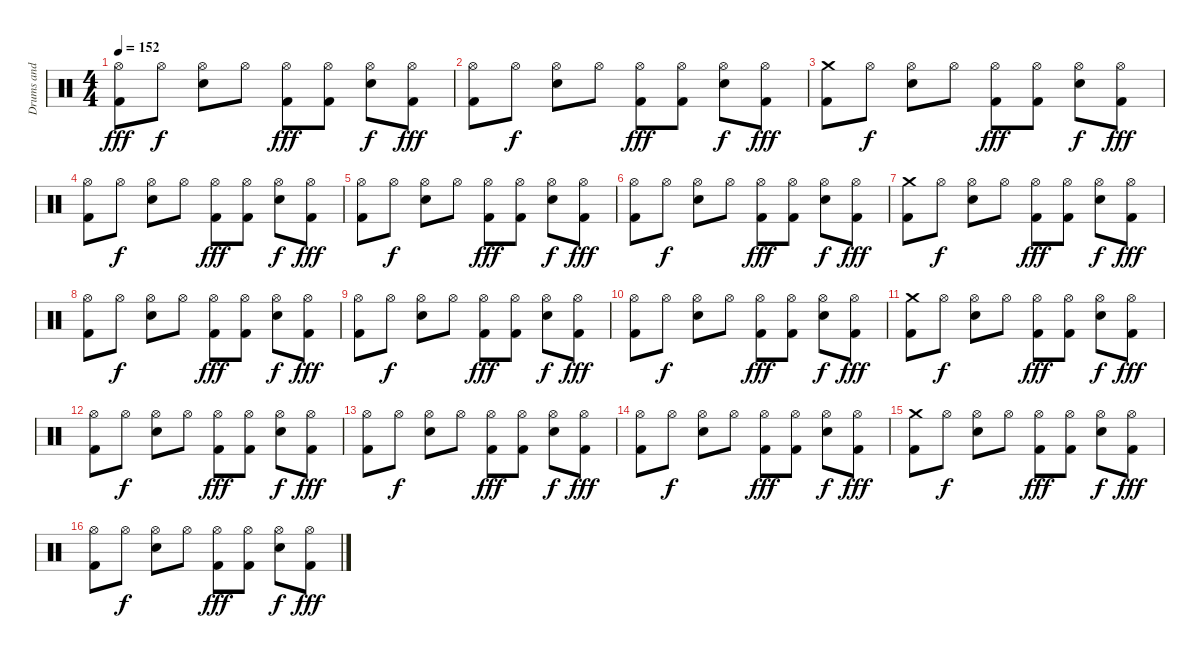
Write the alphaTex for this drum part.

\track ("Drums and Percussion" "Drums and ") {instrument percussion}
\staff {score}
\articulation defaults
\ts (4 4)
\tempo 152
\clef neutral
\ks c
("Hi-Hat (open)" "Kick (hit) 2").8{dy fff} "Hi-Hat (open)".8{dy f} ("Hi-Hat (open)" "Snare (hit) 2").8 "Hi-Hat (open)".8 ("Hi-Hat (open)" "Kick (hit) 2").8{dy fff} ("Hi-Hat (open)" "Kick (hit) 2").8 ("Hi-Hat (open)" "Snare (hit) 2").8{dy f} ("Hi-Hat (open)" "Kick (hit) 2").8{dy fff} |
("Hi-Hat (open)" "Kick (hit) 2").8 "Hi-Hat (open)".8{dy f} ("Hi-Hat (open)" "Snare (hit) 2").8 "Hi-Hat (open)".8 ("Hi-Hat (open)" "Kick (hit) 2").8{dy fff} ("Hi-Hat (open)" "Kick (hit) 2").8 ("Hi-Hat (open)" "Snare (hit) 2").8{dy f} ("Hi-Hat (open)" "Kick (hit) 2").8{dy fff} |
("Crash medium (hit)" "Kick (hit) 2").8 "Hi-Hat (open)".8{dy f} ("Hi-Hat (open)" "Snare (hit) 2").8 "Hi-Hat (open)".8 ("Hi-Hat (open)" "Kick (hit) 2").8{dy fff} ("Hi-Hat (open)" "Kick (hit) 2").8 ("Hi-Hat (open)" "Snare (hit) 2").8{dy f} ("Hi-Hat (open)" "Kick (hit) 2").8{dy fff} |
("Hi-Hat (open)" "Kick (hit) 2").8 "Hi-Hat (open)".8{dy f} ("Hi-Hat (open)" "Snare (hit) 2").8 "Hi-Hat (open)".8 ("Hi-Hat (open)" "Kick (hit) 2").8{dy fff} ("Hi-Hat (open)" "Kick (hit) 2").8 ("Hi-Hat (open)" "Snare (hit) 2").8{dy f} ("Hi-Hat (open)" "Kick (hit) 2").8{dy fff} |
("Hi-Hat (open)" "Kick (hit) 2").8 "Hi-Hat (open)".8{dy f} ("Hi-Hat (open)" "Snare (hit) 2").8 "Hi-Hat (open)".8 ("Hi-Hat (open)" "Kick (hit) 2").8{dy fff} ("Hi-Hat (open)" "Kick (hit) 2").8 ("Hi-Hat (open)" "Snare (hit) 2").8{dy f} ("Hi-Hat (open)" "Kick (hit) 2").8{dy fff} |
("Hi-Hat (open)" "Kick (hit) 2").8 "Hi-Hat (open)".8{dy f} ("Hi-Hat (open)" "Snare (hit) 2").8 "Hi-Hat (open)".8 ("Hi-Hat (open)" "Kick (hit) 2").8{dy fff} ("Hi-Hat (open)" "Kick (hit) 2").8 ("Hi-Hat (open)" "Snare (hit) 2").8{dy f} ("Hi-Hat (open)" "Kick (hit) 2").8{dy fff} |
("Crash medium (hit)" "Kick (hit) 2").8 "Hi-Hat (open)".8{dy f} ("Hi-Hat (open)" "Snare (hit) 2").8 "Hi-Hat (open)".8 ("Hi-Hat (open)" "Kick (hit) 2").8{dy fff} ("Hi-Hat (open)" "Kick (hit) 2").8 ("Hi-Hat (open)" "Snare (hit) 2").8{dy f} ("Hi-Hat (open)" "Kick (hit) 2").8{dy fff} |
("Hi-Hat (open)" "Kick (hit) 2").8 "Hi-Hat (open)".8{dy f} ("Hi-Hat (open)" "Snare (hit) 2").8 "Hi-Hat (open)".8 ("Hi-Hat (open)" "Kick (hit) 2").8{dy fff} ("Hi-Hat (open)" "Kick (hit) 2").8 ("Hi-Hat (open)" "Snare (hit) 2").8{dy f} ("Hi-Hat (open)" "Kick (hit) 2").8{dy fff} |
("Hi-Hat (open)" "Kick (hit) 2").8 "Hi-Hat (open)".8{dy f} ("Hi-Hat (open)" "Snare (hit) 2").8 "Hi-Hat (open)".8 ("Hi-Hat (open)" "Kick (hit) 2").8{dy fff} ("Hi-Hat (open)" "Kick (hit) 2").8 ("Hi-Hat (open)" "Snare (hit) 2").8{dy f} ("Hi-Hat (open)" "Kick (hit) 2").8{dy fff} |
("Hi-Hat (open)" "Kick (hit) 2").8 "Hi-Hat (open)".8{dy f} ("Hi-Hat (open)" "Snare (hit) 2").8 "Hi-Hat (open)".8 ("Hi-Hat (open)" "Kick (hit) 2").8{dy fff} ("Hi-Hat (open)" "Kick (hit) 2").8 ("Hi-Hat (open)" "Snare (hit) 2").8{dy f} ("Hi-Hat (open)" "Kick (hit) 2").8{dy fff} |
("Crash medium (hit)" "Kick (hit) 2").8 "Hi-Hat (open)".8{dy f} ("Hi-Hat (open)" "Snare (hit) 2").8 "Hi-Hat (open)".8 ("Hi-Hat (open)" "Kick (hit) 2").8{dy fff} ("Hi-Hat (open)" "Kick (hit) 2").8 ("Hi-Hat (open)" "Snare (hit) 2").8{dy f} ("Hi-Hat (open)" "Kick (hit) 2").8{dy fff} |
("Hi-Hat (open)" "Kick (hit) 2").8 "Hi-Hat (open)".8{dy f} ("Hi-Hat (open)" "Snare (hit) 2").8 "Hi-Hat (open)".8 ("Hi-Hat (open)" "Kick (hit) 2").8{dy fff} ("Hi-Hat (open)" "Kick (hit) 2").8 ("Hi-Hat (open)" "Snare (hit) 2").8{dy f} ("Hi-Hat (open)" "Kick (hit) 2").8{dy fff} |
("Hi-Hat (open)" "Kick (hit) 2").8 "Hi-Hat (open)".8{dy f} ("Hi-Hat (open)" "Snare (hit) 2").8 "Hi-Hat (open)".8 ("Hi-Hat (open)" "Kick (hit) 2").8{dy fff} ("Hi-Hat (open)" "Kick (hit) 2").8 ("Hi-Hat (open)" "Snare (hit) 2").8{dy f} ("Hi-Hat (open)" "Kick (hit) 2").8{dy fff} |
("Hi-Hat (open)" "Kick (hit) 2").8 "Hi-Hat (open)".8{dy f} ("Hi-Hat (open)" "Snare (hit) 2").8 "Hi-Hat (open)".8 ("Hi-Hat (open)" "Kick (hit) 2").8{dy fff} ("Hi-Hat (open)" "Kick (hit) 2").8 ("Hi-Hat (open)" "Snare (hit) 2").8{dy f} ("Hi-Hat (open)" "Kick (hit) 2").8{dy fff} |
("Crash medium (hit)" "Kick (hit) 2").8 "Hi-Hat (open)".8{dy f} ("Hi-Hat (open)" "Snare (hit) 2").8 "Hi-Hat (open)".8 ("Hi-Hat (open)" "Kick (hit) 2").8{dy fff} ("Hi-Hat (open)" "Kick (hit) 2").8 ("Hi-Hat (open)" "Snare (hit) 2").8{dy f} ("Hi-Hat (open)" "Kick (hit) 2").8{dy fff} |
("Hi-Hat (open)" "Kick (hit) 2").8 "Hi-Hat (open)".8{dy f} ("Hi-Hat (open)" "Snare (hit) 2").8 "Hi-Hat (open)".8 ("Hi-Hat (open)" "Kick (hit) 2").8{dy fff} ("Hi-Hat (open)" "Kick (hit) 2").8 ("Hi-Hat (open)" "Snare (hit) 2").8{dy f} ("Hi-Hat (open)" "Kick (hit) 2").8{dy fff}
